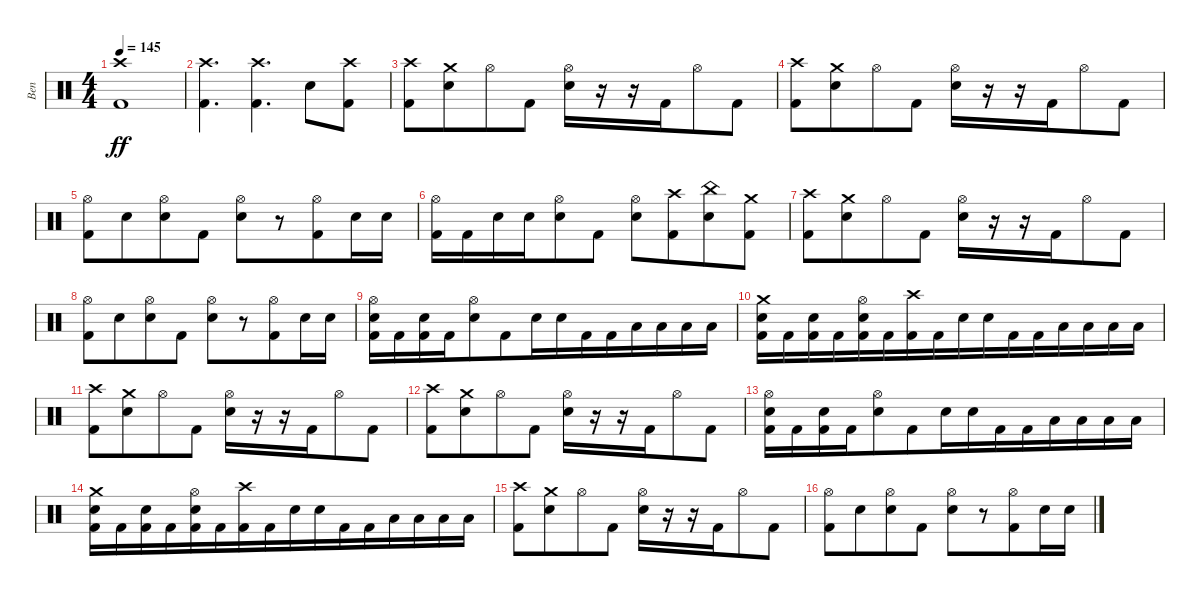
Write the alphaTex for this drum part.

\track ("Ben" "Ben") {instrument percussion}
\staff {score}
\articulation defaults
\ts (4 4)
\tempo 145
\clef neutral
\ks c
("Kick (hit) 2" "Crash high (hit)").1{dy ff} |
("Crash high (hit)" "Kick (hit) 2").4{d} ("Crash high (hit)" "Kick (hit) 2").4{d} "Electric Snare (hit)".8{beam merge} ("Kick (hit) 2" "Crash high (hit)").8 |
("Crash high (hit)" "Kick (hit) 2").8{beam merge} ("Crash medium (hit)" "Electric Snare (hit)").8{beam merge} "Hi-Hat (open)".8 "Kick (hit) 2".8 ("Hi-Hat (open)" "Electric Snare (hit)").16{beam merge} r.16{beam merge} r.16{beam merge} "Kick (hit) 2".16{beam merge} "Hi-Hat (open)".8 "Kick (hit) 2".8 |
("Crash high (hit)" "Kick (hit) 2").8{beam merge} ("Crash medium (hit)" "Electric Snare (hit)").8{beam merge} "Hi-Hat (open)".8 "Kick (hit) 2".8 ("Hi-Hat (open)" "Electric Snare (hit)").16{beam merge} r.16{beam merge} r.16{beam merge} "Kick (hit) 2".16{beam merge} "Hi-Hat (open)".8 "Kick (hit) 2".8 |
("Hi-Hat (open)" "Kick (hit) 2").8 "Electric Snare (hit)".8{beam merge} ("Hi-Hat (open)" "Electric Snare (hit)").8{beam merge} "Kick (hit) 2".8 ("Hi-Hat (open)" "Electric Snare (hit)").8{beam merge} r.8{beam merge} ("Hi-Hat (open)" "Kick (hit) 2").8 "Electric Snare (hit)".16{beam merge} "Electric Snare (hit)".16 |
("Hi-Hat (open)" "Kick (hit) 2").16 "Kick (hit) 2".16{beam merge} "Electric Snare (hit)".16 "Electric Snare (hit)".16{beam merge} ("Hi-Hat (open)" "Electric Snare (hit)").8{beam merge} "Kick (hit) 2".8 ("Hi-Hat (open)" "Electric Snare (hit)").8{beam merge} ("Crash high (hit)" "Kick (hit) 2").8{beam merge} ("China (hit)" "Electric Snare (hit)").8 ("Crash medium (hit)" "Kick (hit) 2").8 |
("Crash high (hit)" "Kick (hit) 2").8{beam merge} ("Crash medium (hit)" "Electric Snare (hit)").8{beam merge} "Hi-Hat (open)".8 "Kick (hit) 2".8 ("Hi-Hat (open)" "Electric Snare (hit)").16{beam merge} r.16{beam merge} r.16{beam merge} "Kick (hit) 2".16{beam merge} "Hi-Hat (open)".8 "Kick (hit) 2".8 |
("Hi-Hat (open)" "Kick (hit) 2").8 "Electric Snare (hit)".8{beam merge} ("Hi-Hat (open)" "Electric Snare (hit)").8{beam merge} "Kick (hit) 2".8 ("Hi-Hat (open)" "Electric Snare (hit)").8{beam merge} r.8{beam merge} ("Hi-Hat (open)" "Kick (hit) 2").8 "Electric Snare (hit)".16{beam merge} "Electric Snare (hit)".16 |
("Kick (hit) 2" "Electric Snare (hit)" "Hi-Hat (open)").16{beam merge} "Kick (hit) 2".16{beam merge} ("Kick (hit) 2" "Electric Snare (hit)").16{beam merge} "Kick (hit) 2".16{beam merge} ("Electric Snare (hit)" "Hi-Hat (open)").8{beam merge} "Kick (hit) 2".8{beam merge} "Electric Snare (hit)".16{beam merge} "Electric Snare (hit)".16{beam merge} "Kick (hit) 2".16{beam merge} "Kick (hit) 2".16{beam merge} "Low Tom (hit)".16{beam merge} "Low Tom (hit)".16{beam merge} "Low Floor Tom (hit)".16{beam merge} "Low Floor Tom (hit)".16 |
("Kick (hit) 2" "Electric Snare (hit)" "Crash medium (hit)").16{beam merge} "Kick (hit) 2".16{beam merge} ("Kick (hit) 2" "Electric Snare (hit)").16{beam merge} "Kick (hit) 2".16{beam merge} ("Electric Snare (hit)" "Kick (hit) 2" "Hi-Hat (open)").16{beam merge} "Kick (hit) 2".16{beam merge} ("Kick (hit) 2" "Crash high (hit)").16{beam merge} "Kick (hit) 2".16{beam merge} "Electric Snare (hit)".16{beam merge} "Electric Snare (hit)".16{beam merge} "Kick (hit) 2".16{beam merge} "Kick (hit) 2".16{beam merge} "Low Tom (hit)".16{beam merge} "Low Tom (hit)".16{beam merge} "Low Floor Tom (hit)".16{beam merge} "Low Floor Tom (hit)".16 |
("Crash high (hit)" "Kick (hit) 2").8{beam merge} ("Crash medium (hit)" "Electric Snare (hit)").8{beam merge} "Hi-Hat (open)".8 "Kick (hit) 2".8 ("Hi-Hat (open)" "Electric Snare (hit)").16{beam merge} r.16{beam merge} r.16{beam merge} "Kick (hit) 2".16{beam merge} "Hi-Hat (open)".8 "Kick (hit) 2".8 |
("Crash high (hit)" "Kick (hit) 2").8{beam merge} ("Crash medium (hit)" "Electric Snare (hit)").8{beam merge} "Hi-Hat (open)".8 "Kick (hit) 2".8 ("Hi-Hat (open)" "Electric Snare (hit)").16{beam merge} r.16{beam merge} r.16{beam merge} "Kick (hit) 2".16{beam merge} "Hi-Hat (open)".8 "Kick (hit) 2".8 |
("Kick (hit) 2" "Electric Snare (hit)" "Hi-Hat (open)").16{beam merge} "Kick (hit) 2".16{beam merge} ("Kick (hit) 2" "Electric Snare (hit)").16{beam merge} "Kick (hit) 2".16{beam merge} ("Electric Snare (hit)" "Hi-Hat (open)").8{beam merge} "Kick (hit) 2".8{beam merge} "Electric Snare (hit)".16{beam merge} "Electric Snare (hit)".16{beam merge} "Kick (hit) 2".16{beam merge} "Kick (hit) 2".16{beam merge} "Low Tom (hit)".16{beam merge} "Low Tom (hit)".16{beam merge} "Low Floor Tom (hit)".16{beam merge} "Low Floor Tom (hit)".16 |
("Kick (hit) 2" "Electric Snare (hit)" "Crash medium (hit)").16{beam merge} "Kick (hit) 2".16{beam merge} ("Kick (hit) 2" "Electric Snare (hit)").16{beam merge} "Kick (hit) 2".16{beam merge} ("Electric Snare (hit)" "Kick (hit) 2" "Hi-Hat (open)").16{beam merge} "Kick (hit) 2".16{beam merge} ("Kick (hit) 2" "Crash high (hit)").16{beam merge} "Kick (hit) 2".16{beam merge} "Electric Snare (hit)".16{beam merge} "Electric Snare (hit)".16{beam merge} "Kick (hit) 2".16{beam merge} "Kick (hit) 2".16{beam merge} "Low Tom (hit)".16{beam merge} "Low Tom (hit)".16{beam merge} "Low Floor Tom (hit)".16{beam merge} "Low Floor Tom (hit)".16 |
("Crash high (hit)" "Kick (hit) 2").8{beam merge} ("Crash medium (hit)" "Electric Snare (hit)").8{beam merge} "Hi-Hat (open)".8 "Kick (hit) 2".8 ("Hi-Hat (open)" "Electric Snare (hit)").16{beam merge} r.16{beam merge} r.16{beam merge} "Kick (hit) 2".16{beam merge} "Hi-Hat (open)".8 "Kick (hit) 2".8 |
("Hi-Hat (open)" "Kick (hit) 2").8 "Electric Snare (hit)".8{beam merge} ("Hi-Hat (open)" "Electric Snare (hit)").8{beam merge} "Kick (hit) 2".8 ("Hi-Hat (open)" "Electric Snare (hit)").8{beam merge} r.8{beam merge} ("Hi-Hat (open)" "Kick (hit) 2").8 "Electric Snare (hit)".16{beam merge} "Electric Snare (hit)".16
